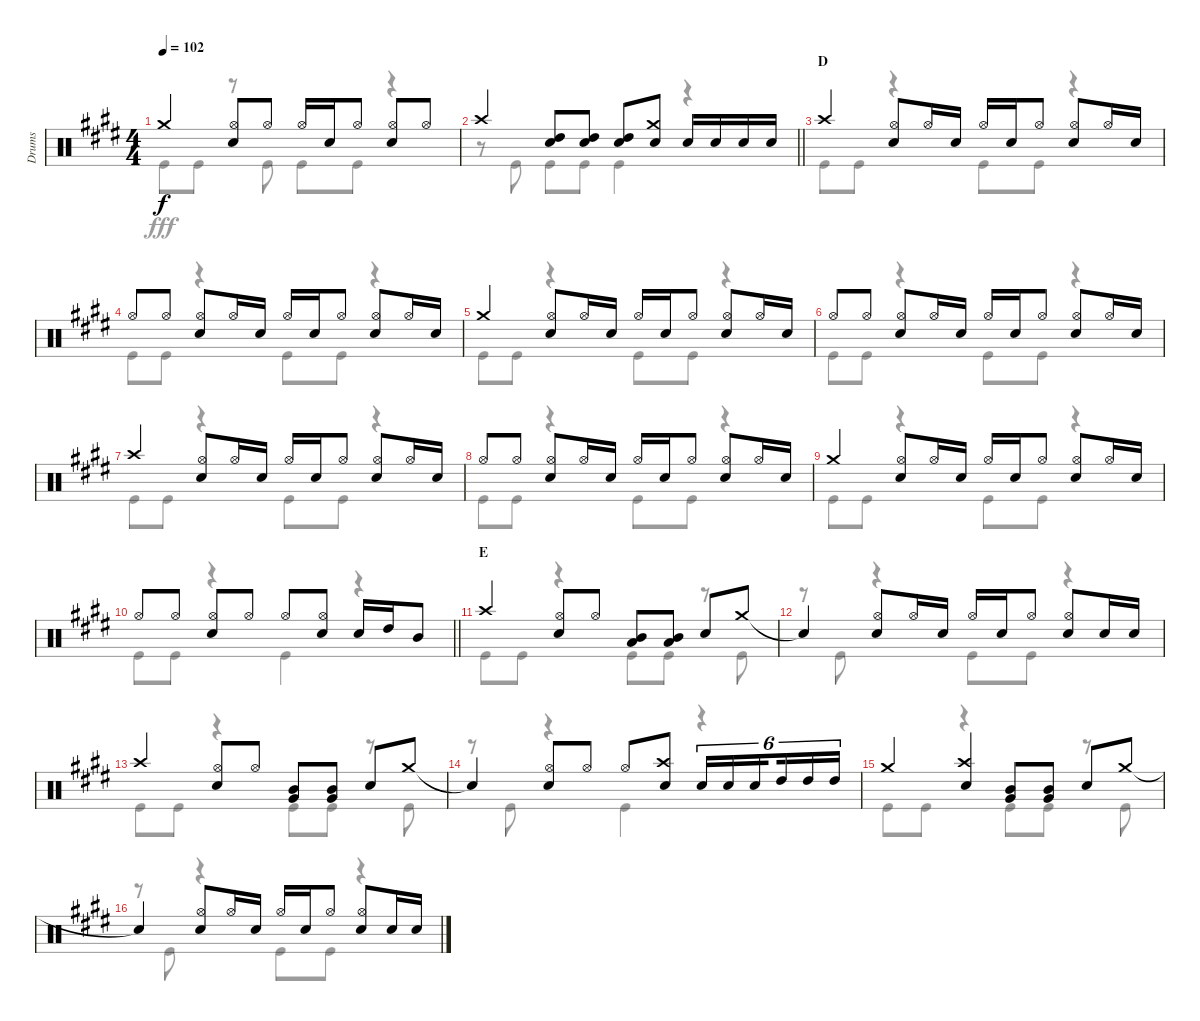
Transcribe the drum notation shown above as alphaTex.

\track ("Drums" "Drums") {instrument percussion}
\staff {score}
\articulation defaults
\voice
\ts (4 4)
\tempo 102
\clef neutral
\ks e "Crash medium (hit)".4{dy f}
("Hi-Hat (open)" "Snare (hit) 2").8 "Hi-Hat (open)".8 "Hi-Hat (open)".16 "Snare (hit) 2".16 "Hi-Hat (open)".8 ("Hi-Hat (open)" "Snare (hit) 2").8 "Hi-Hat (open)".8 |
\barLineRight lightlight "Crash high (hit)".4
("High Tom (hit)" "Snare (hit) 2").8 ("High Tom (hit)" "Snare (hit) 2").8 ("High Tom (hit)" "Snare (hit) 2").8 ("Crash medium (hit)" "Snare (hit) 2").8 "Snare (hit) 2".16 "Snare (hit) 2".16 "Snare (hit) 2".16 "Snare (hit) 2".16 |
\section ("" "D")
"Crash high (hit)".4 ("Hi-Hat (open)" "Snare (hit) 2").8 "Hi-Hat (open)".16 "Snare (hit) 2".16 "Hi-Hat (open)".16 "Snare (hit) 2".16 "Hi-Hat (open)".8 ("Hi-Hat (open)" "Snare (hit) 2").8 "Hi-Hat (open)".16 "Snare (hit) 2".16 |
"Hi-Hat (open)".8 "Hi-Hat (open)".8 ("Hi-Hat (open)" "Snare (hit) 2").8 "Hi-Hat (open)".16 "Snare (hit) 2".16 "Hi-Hat (open)".16 "Snare (hit) 2".16 "Hi-Hat (open)".8 ("Hi-Hat (open)" "Snare (hit) 2").8 "Hi-Hat (open)".16 "Snare (hit) 2".16 |
"Crash medium (hit)".4 ("Hi-Hat (open)" "Snare (hit) 2").8 "Hi-Hat (open)".16 "Snare (hit) 2".16 "Hi-Hat (open)".16 "Snare (hit) 2".16 "Hi-Hat (open)".8 ("Hi-Hat (open)" "Snare (hit) 2").8 "Hi-Hat (open)".16 "Snare (hit) 2".16 |
"Hi-Hat (open)".8 "Hi-Hat (open)".8 ("Hi-Hat (open)" "Snare (hit) 2").8 "Hi-Hat (open)".16 "Snare (hit) 2".16 "Hi-Hat (open)".16 "Snare (hit) 2".16 "Hi-Hat (open)".8 ("Hi-Hat (open)" "Snare (hit) 2").8 "Hi-Hat (open)".16 "Snare (hit) 2".16 |
"Crash high (hit)".4 ("Hi-Hat (open)" "Snare (hit) 2").8 "Hi-Hat (open)".16 "Snare (hit) 2".16 "Hi-Hat (open)".16 "Snare (hit) 2".16 "Hi-Hat (open)".8 ("Hi-Hat (open)" "Snare (hit) 2").8 "Hi-Hat (open)".16 "Snare (hit) 2".16 |
"Hi-Hat (open)".8 "Hi-Hat (open)".8 ("Hi-Hat (open)" "Snare (hit) 2").8 "Hi-Hat (open)".16 "Snare (hit) 2".16 "Hi-Hat (open)".16 "Snare (hit) 2".16 "Hi-Hat (open)".8 ("Hi-Hat (open)" "Snare (hit) 2").8 "Hi-Hat (open)".16 "Snare (hit) 2".16 |
"Crash medium (hit)".4 ("Hi-Hat (open)" "Snare (hit) 2").8 "Hi-Hat (open)".16 "Snare (hit) 2".16 "Hi-Hat (open)".16 "Snare (hit) 2".16 "Hi-Hat (open)".8 ("Hi-Hat (open)" "Snare (hit) 2").8 "Hi-Hat (open)".16 "Snare (hit) 2".16 |
\barLineRight lightlight "Hi-Hat (open)".8 "Hi-Hat (open)".8
("Hi-Hat (open)" "Snare (hit) 2").8 "Hi-Hat (open)".8 "Hi-Hat (open)".8 ("Hi-Hat (open)" "Snare (hit) 2").8 "Snare (hit) 2".16 "High Tom (hit)".16 "Mid Tom (hit)".8 |
\section ("" "E")
"Crash high (hit)".4 ("Hi-Hat (open)" "Snare (hit) 2").8 "Hi-Hat (open)".8 ("Mid Tom (hit)" "Low Tom (hit)").8 ("Mid Tom (hit)" "Low Tom (hit)").8 "Snare (hit) 2".8 "Crash medium (hit)".8 |
"Snare (hit)"{t}.4 ("Hi-Hat (open)" "Snare (hit) 2").8 "Hi-Hat (open)".16 "Snare (hit) 2".16 "Hi-Hat (open)".16 "Snare (hit) 2".16 "Hi-Hat (open)".8 ("Hi-Hat (open)" "Snare (hit) 2").8 "Snare (hit) 2".16 "Snare (hit) 2".16 |
"Crash high (hit)".4 ("Hi-Hat (open)" "Snare (hit) 2").8 "Hi-Hat (open)".8 ("Mid Tom (hit)" "Very Low Tom (hit)").8 ("Mid Tom (hit)" "Very Low Tom (hit)").8 "Snare (hit) 2".8 "Crash medium (hit)".8 |
"Snare (hit)"{t}.4 ("Hi-Hat (open)" "Snare (hit) 2").8 "Hi-Hat (open)".8 "Hi-Hat (open)".8 ("Crash high (hit)" "Snare (hit) 2").8 "Snare (hit) 2".16{tu (6 4)} "Snare (hit) 2".16{tu (6 4)} "Snare (hit) 2".16{tu (6 4) beam splitsecondary} "High Tom (hit)".16{tu (6 4)} "High Tom (hit)".16{tu (6 4)} "High Tom (hit)".16{tu (6 4)} |
"Crash medium (hit)".4 ("Crash high (hit)" "Snare (hit) 2").4 ("Mid Tom (hit)" "Very Low Tom (hit)").8 ("Mid Tom (hit)" "Very Low Tom (hit)").8 "Snare (hit) 2".8 "Crash medium (hit)".8 |
"Snare (hit)"{t}.4 ("Hi-Hat (open)" "Snare (hit) 2").8 "Hi-Hat (open)".16 "Snare (hit) 2".16 "Hi-Hat (open)".16 "Snare (hit) 2".16 "Hi-Hat (open)".8 ("Hi-Hat (open)" "Snare (hit) 2").8 "Snare (hit) 2".16 "Snare (hit) 2".16
\voice
\clef neutral
\ottava regular
\simile none
\ks e "Kick (hit)".8{dy fff} "Kick (hit)".8
r.8 "Kick (hit)".8 "Kick (hit)".8 "Kick (hit)".8 r.4 |
\barLineRight lightlight
r.8 "Kick (hit)".8 "Kick (hit)".8 "Kick (hit)".8 "Kick (hit)".4 r.4 |
"Kick (hit)".8 "Kick (hit)".8 r.4 "Kick (hit)".8 "Kick (hit)".8 r.4 |
"Kick (hit)".8 "Kick (hit)".8 r.4 "Kick (hit)".8 "Kick (hit)".8 r.4 |
"Kick (hit)".8 "Kick (hit)".8 r.4 "Kick (hit)".8 "Kick (hit)".8 r.4 |
"Kick (hit)".8 "Kick (hit)".8 r.4 "Kick (hit)".8 "Kick (hit)".8 r.4 |
"Kick (hit)".8 "Kick (hit)".8 r.4 "Kick (hit)".8 "Kick (hit)".8 r.4 |
"Kick (hit)".8 "Kick (hit)".8 r.4 "Kick (hit)".8 "Kick (hit)".8 r.4 |
"Kick (hit)".8 "Kick (hit)".8 r.4 "Kick (hit)".8 "Kick (hit)".8 r.4 |
\barLineRight lightlight "Kick (hit)".8 "Kick (hit)".8
r.4 "Kick (hit)".4 r.4 |
"Kick (hit)".8 "Kick (hit)".8 r.4 "Kick (hit)".8 "Kick (hit)".8 r.8 "Kick (hit)".8 |
r.8 "Kick (hit)".8 r.4 "Kick (hit)".8 "Kick (hit)".8 r.4 |
"Kick (hit)".8 "Kick (hit)".8 r.4 "Kick (hit)".8 "Kick (hit)".8 r.8 "Kick (hit)".8 |
r.8 "Kick (hit)".8 r.4 "Kick (hit)".4 r.4 |
"Kick (hit)".8 "Kick (hit)".8 r.4 "Kick (hit)".8 "Kick (hit)".8 r.8 "Kick (hit)".8 |
r.8 "Kick (hit)".8 r.4 "Kick (hit)".8 "Kick (hit)".8 r.4
